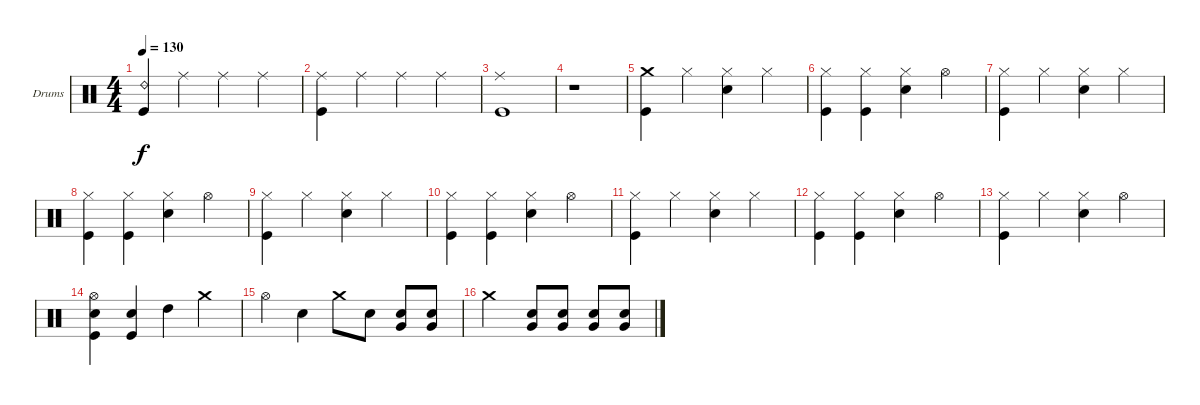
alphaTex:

\bracketExtendMode groupsimilarinstruments
\firstSystemTrackNameOrientation horizontal
\otherSystemsTrackNameOrientation horizontal
\track ("Drumkit" "Drums") {instrument percussion}
\staff {score}
\articulation defaults
\ts (4 4)
\tempo 130
\clef neutral
\ks c
("Kick (hit)" "Ride (bell) 2").4{dy f} "Ride (middle)".4 "Ride (middle)".4 "Ride (middle)".4 |
("Kick (hit)" "Ride (middle)").4 "Ride (middle)".4 "Ride (middle)".4 "Ride (middle)".4 |
("Kick (hit)" "Ride (middle)").1 |
r.1 |
("Kick (hit)" "Crash medium (hit)").4 "Hi-Hat (closed)".4 ("Snare (hit) 2" "Hi-Hat (closed)").4 "Hi-Hat (closed)".4 |
("Kick (hit)" "Hi-Hat (closed)").4 ("Kick (hit)" "Hi-Hat (closed)").4 ("Snare (hit) 2" "Hi-Hat (closed)").4 "Hi-Hat (open)".4 |
("Kick (hit)" "Hi-Hat (closed)").4 "Hi-Hat (closed)".4 ("Snare (hit) 2" "Hi-Hat (closed)").4 "Hi-Hat (closed)".4 |
("Kick (hit)" "Hi-Hat (closed)").4 ("Kick (hit)" "Hi-Hat (closed)").4 ("Snare (hit) 2" "Hi-Hat (closed)").4 "Hi-Hat (open)".4 |
("Kick (hit)" "Hi-Hat (closed)").4 "Hi-Hat (closed)".4 ("Snare (hit) 2" "Hi-Hat (closed)").4 "Hi-Hat (closed)".4 |
("Kick (hit)" "Hi-Hat (closed)").4 ("Kick (hit)" "Hi-Hat (closed)").4 ("Snare (hit) 2" "Hi-Hat (closed)").4 "Hi-Hat (open)".4 |
("Kick (hit)" "Hi-Hat (closed)").4 "Hi-Hat (closed)".4 ("Snare (hit) 2" "Hi-Hat (closed)").4 "Hi-Hat (closed)".4 |
("Kick (hit)" "Hi-Hat (closed)").4 ("Kick (hit)" "Hi-Hat (closed)").4 ("Snare (hit) 2" "Hi-Hat (closed)").4 "Hi-Hat (open)".4 |
("Kick (hit)" "Hi-Hat (closed)").4 "Hi-Hat (closed)".4 ("Snare (hit) 2" "Hi-Hat (closed)").4 "Hi-Hat (open)".4 |
("Kick (hit)" "Snare (hit) 2" "Hi-Hat (open)").4 ("Kick (hit)" "Snare (hit) 2").4 "High Tom (hit)".4 "Crash medium (hit)".4 |
"Hi-Hat (open)".4 "Snare (hit) 2".4 "Crash medium (hit)".8 "Snare (hit) 2".8 ("Snare (hit) 2" "Very Low Tom (hit)").8 ("Snare (hit) 2" "Very Low Tom (hit)").8 |
"Crash medium (hit)".2 ("Very Low Tom (hit)" "Snare (hit) 2").8 ("Very Low Tom (hit)" "Snare (hit) 2").8 ("Very Low Tom (hit)" "Snare (hit) 2").8 ("Very Low Tom (hit)" "Snare (hit) 2").8
